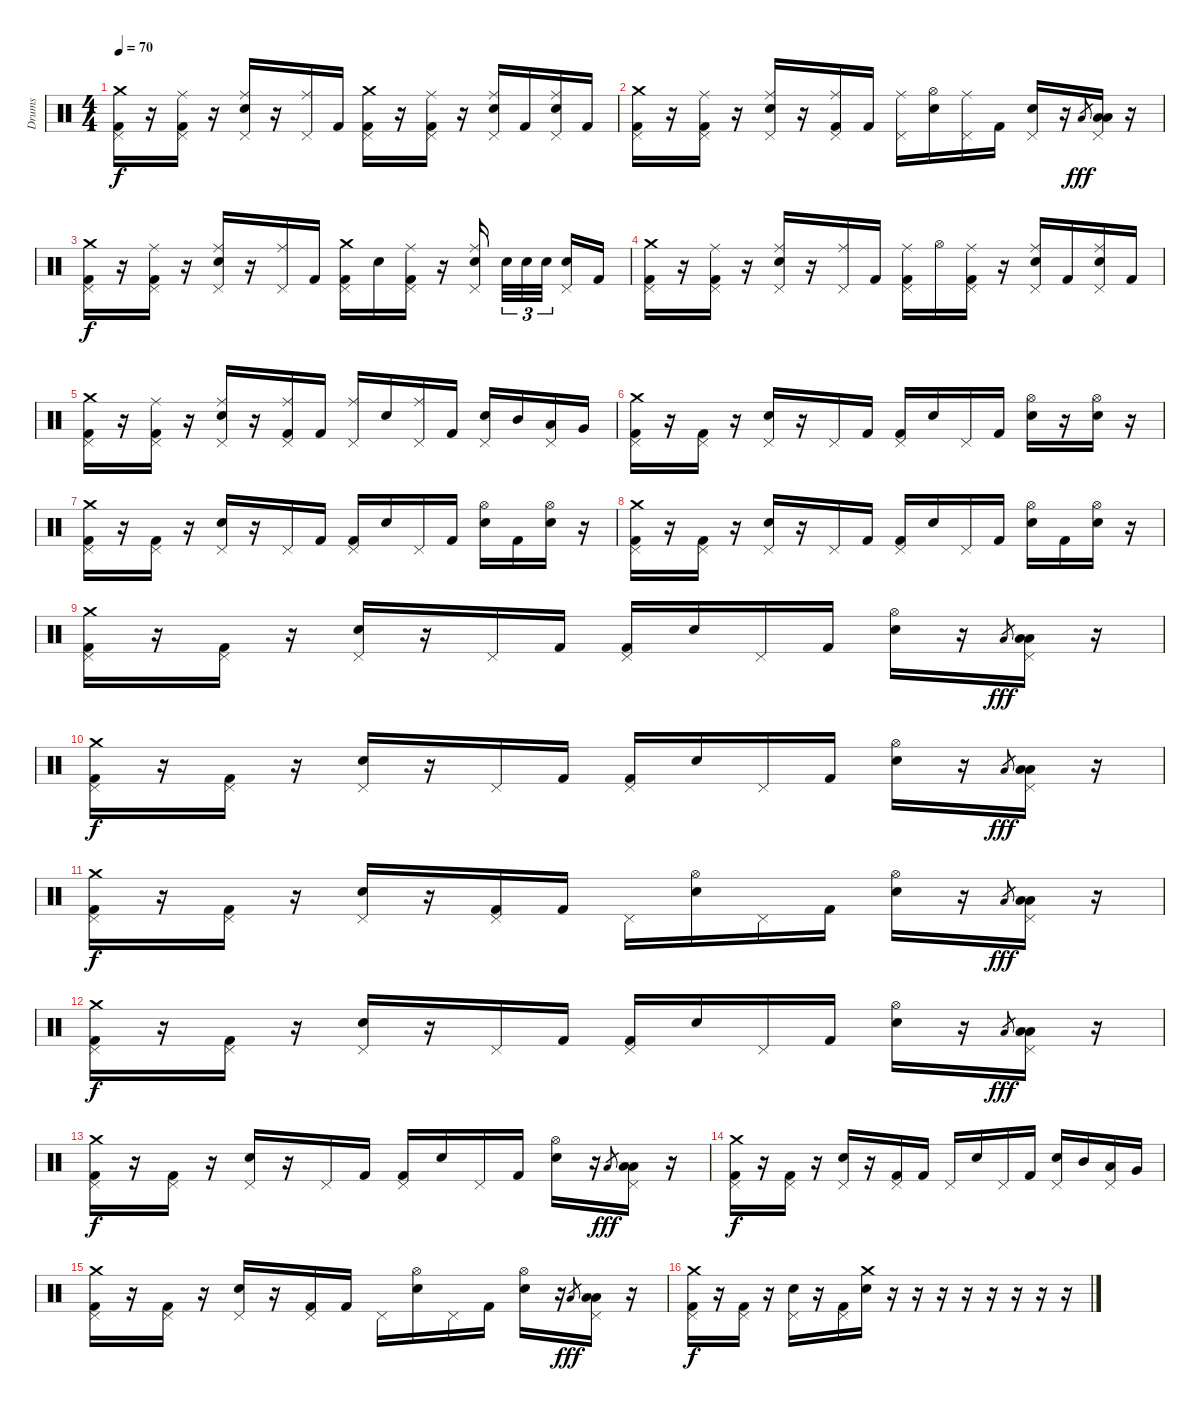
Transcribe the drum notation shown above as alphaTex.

\track ("Drums" "Drums") {instrument percussion}
\staff {score}
\articulation defaults
\ts (4 4)
\tempo 70
\clef neutral
\ks c
("Crash medium (hit)" "Pedal Hi-Hat (hit)" "Kick (hit) 2").16{dy f} r.16 ("Ride (middle)" "Pedal Hi-Hat (hit)" "Kick (hit) 2").16 r.16 ("Ride (middle)" "Pedal Hi-Hat (hit)" "Snare (hit) 2").16 r.16 ("Ride (middle)" "Pedal Hi-Hat (hit)").16 "Kick (hit) 2".16 ("Crash medium (hit)" "Pedal Hi-Hat (hit)" "Kick (hit) 2").16 r.16 ("Ride (middle)" "Pedal Hi-Hat (hit)" "Kick (hit) 2").16 r.16 ("Ride (middle)" "Pedal Hi-Hat (hit)" "Snare (hit) 2").16 "Kick (hit) 2".16 ("Ride (middle)" "Pedal Hi-Hat (hit)" "Snare (hit) 2").16 "Kick (hit) 2".16 |
("Crash medium (hit)" "Pedal Hi-Hat (hit)" "Kick (hit) 2").16 r.16 ("Ride (middle)" "Pedal Hi-Hat (hit)" "Kick (hit) 2").16 r.16 ("Ride (middle)" "Pedal Hi-Hat (hit)" "Snare (hit) 2").16 r.16 ("Ride (middle)" "Pedal Hi-Hat (hit)" "Kick (hit) 2").16 "Kick (hit) 2".16 ("Ride (middle)" "Pedal Hi-Hat (hit)").16 ("Hi-Hat (open)" "Snare (hit) 2").16 ("Ride (middle)" "Pedal Hi-Hat (hit)").16 "Kick (hit) 2".16 ("Pedal Hi-Hat (hit)" "Snare (hit) 2").16 r.16 "Low Tom (hit)".8{gr dy fff} ("Pedal Hi-Hat (hit)" "Low Tom (hit)" "Low Tom (hit)").16 r.16 |
("Crash medium (hit)" "Pedal Hi-Hat (hit)" "Kick (hit) 2").16{dy f} r.16 ("Ride (middle)" "Pedal Hi-Hat (hit)" "Kick (hit) 2").16 r.16 ("Ride (middle)" "Pedal Hi-Hat (hit)" "Snare (hit) 2").16 r.16 ("Ride (middle)" "Pedal Hi-Hat (hit)").16 "Kick (hit) 2".16 ("Crash medium (hit)" "Pedal Hi-Hat (hit)" "Kick (hit) 2").16 "Snare (hit) 2".16 ("Ride (middle)" "Pedal Hi-Hat (hit)" "Kick (hit) 2").16 r.16 ("Ride (middle)" "Pedal Hi-Hat (hit)" "Snare (hit) 2").16 "Snare (hit) 2".32{tu (3 2)} "Snare (hit) 2".32{tu (3 2)} "Snare (hit) 2".32{tu (3 2)} ("Pedal Hi-Hat (hit)" "Snare (hit) 2").16 "Kick (hit) 2".16 |
("Crash medium (hit)" "Pedal Hi-Hat (hit)" "Kick (hit) 2").16 r.16 ("Ride (middle)" "Pedal Hi-Hat (hit)" "Kick (hit) 2").16 r.16 ("Ride (middle)" "Pedal Hi-Hat (hit)" "Snare (hit) 2").16 r.16 ("Ride (middle)" "Pedal Hi-Hat (hit)").16 "Kick (hit) 2".16 ("Ride (middle)" "Pedal Hi-Hat (hit)" "Kick (hit) 2").16 "Hi-Hat (open)".16 ("Ride (middle)" "Pedal Hi-Hat (hit)" "Kick (hit) 2").16 r.16 ("Ride (middle)" "Pedal Hi-Hat (hit)" "Snare (hit) 2").16 "Kick (hit) 2".16 ("Ride (middle)" "Pedal Hi-Hat (hit)" "Snare (hit) 2").16 "Kick (hit) 2".16 |
("Crash medium (hit)" "Pedal Hi-Hat (hit)" "Kick (hit) 2").16 r.16 ("Ride (middle)" "Pedal Hi-Hat (hit)" "Kick (hit) 2").16 r.16 ("Ride (middle)" "Pedal Hi-Hat (hit)" "Snare (hit) 2").16 r.16 ("Ride (middle)" "Pedal Hi-Hat (hit)" "Kick (hit) 2").16 "Kick (hit) 2".16 ("Ride (middle)" "Pedal Hi-Hat (hit)").16 "Snare (hit) 2".16 ("Ride (middle)" "Pedal Hi-Hat (hit)").16 "Kick (hit) 2".16 ("Pedal Hi-Hat (hit)" "Snare (hit) 2").16 "Mid Tom (hit)".16 ("Pedal Hi-Hat (hit)" "Low Tom (hit)").16 "Very Low Tom (hit)".16 |
("Crash medium (hit)" "Pedal Hi-Hat (hit)" "Kick (hit) 2").16 r.16 ("Pedal Hi-Hat (hit)" "Kick (hit) 2").16 r.16 ("Pedal Hi-Hat (hit)" "Snare (hit) 2").16 r.16 "Pedal Hi-Hat (hit)".16 "Kick (hit) 2".16 ("Pedal Hi-Hat (hit)" "Kick (hit) 2").16 "Snare (hit) 2".16 "Pedal Hi-Hat (hit)".16 "Kick (hit) 2".16 ("Hi-Hat (open)" "Snare (hit) 2").16 r.16 ("Hi-Hat (open)" "Snare (hit) 2").16 r.16 |
("Crash medium (hit)" "Pedal Hi-Hat (hit)" "Kick (hit) 2").16 r.16 ("Pedal Hi-Hat (hit)" "Kick (hit) 2").16 r.16 ("Pedal Hi-Hat (hit)" "Snare (hit) 2").16 r.16 "Pedal Hi-Hat (hit)".16 "Kick (hit) 2".16 ("Pedal Hi-Hat (hit)" "Kick (hit) 2").16 "Snare (hit) 2".16 "Pedal Hi-Hat (hit)".16 "Kick (hit) 2".16 ("Hi-Hat (open)" "Snare (hit) 2").16 "Kick (hit) 2".16 ("Hi-Hat (open)" "Snare (hit) 2").16 r.16 |
("Crash medium (hit)" "Pedal Hi-Hat (hit)" "Kick (hit) 2").16 r.16 ("Pedal Hi-Hat (hit)" "Kick (hit) 2").16 r.16 ("Pedal Hi-Hat (hit)" "Snare (hit) 2").16 r.16 "Pedal Hi-Hat (hit)".16 "Kick (hit) 2".16 ("Pedal Hi-Hat (hit)" "Kick (hit) 2").16 "Snare (hit) 2".16 "Pedal Hi-Hat (hit)".16 "Kick (hit) 2".16 ("Hi-Hat (open)" "Snare (hit) 2").16 "Kick (hit) 2".16 ("Hi-Hat (open)" "Snare (hit) 2").16 r.16 |
("Crash medium (hit)" "Pedal Hi-Hat (hit)" "Kick (hit) 2").16 r.16 ("Pedal Hi-Hat (hit)" "Kick (hit) 2").16 r.16 ("Pedal Hi-Hat (hit)" "Snare (hit) 2").16 r.16 "Pedal Hi-Hat (hit)".16 "Kick (hit) 2".16 ("Pedal Hi-Hat (hit)" "Kick (hit) 2").16 "Snare (hit) 2".16 "Pedal Hi-Hat (hit)".16 "Kick (hit) 2".16 ("Hi-Hat (open)" "Snare (hit) 2").16 r.16 "Low Tom (hit)".8{gr dy fff} ("Pedal Hi-Hat (hit)" "Low Tom (hit)" "Low Tom (hit)").16 r.16 |
("Crash medium (hit)" "Pedal Hi-Hat (hit)" "Kick (hit) 2").16{dy f} r.16 ("Pedal Hi-Hat (hit)" "Kick (hit) 2").16 r.16 ("Pedal Hi-Hat (hit)" "Snare (hit) 2").16 r.16 "Pedal Hi-Hat (hit)".16 "Kick (hit) 2".16 ("Pedal Hi-Hat (hit)" "Kick (hit) 2").16 "Snare (hit) 2".16 "Pedal Hi-Hat (hit)".16 "Kick (hit) 2".16 ("Hi-Hat (open)" "Snare (hit) 2").16 r.16 "Low Tom (hit)".8{gr dy fff} ("Pedal Hi-Hat (hit)" "Low Tom (hit)" "Low Tom (hit)").16 r.16 |
("Crash medium (hit)" "Pedal Hi-Hat (hit)" "Kick (hit) 2").16{dy f} r.16 ("Pedal Hi-Hat (hit)" "Kick (hit) 2").16 r.16 ("Pedal Hi-Hat (hit)" "Snare (hit) 2").16 r.16 ("Pedal Hi-Hat (hit)" "Kick (hit) 2").16 "Kick (hit) 2".16 "Pedal Hi-Hat (hit)".16 ("Hi-Hat (open)" "Snare (hit) 2").16 "Pedal Hi-Hat (hit)".16 "Kick (hit) 2".16 ("Hi-Hat (open)" "Snare (hit) 2").16 r.16 "Low Tom (hit)".8{gr dy fff} ("Pedal Hi-Hat (hit)" "Low Tom (hit)" "Low Tom (hit)").16 r.16 |
("Crash medium (hit)" "Pedal Hi-Hat (hit)" "Kick (hit) 2").16{dy f} r.16 ("Pedal Hi-Hat (hit)" "Kick (hit) 2").16 r.16 ("Pedal Hi-Hat (hit)" "Snare (hit) 2").16 r.16 "Pedal Hi-Hat (hit)".16 "Kick (hit) 2".16 ("Pedal Hi-Hat (hit)" "Kick (hit) 2").16 "Snare (hit) 2".16 "Pedal Hi-Hat (hit)".16 "Kick (hit) 2".16 ("Hi-Hat (open)" "Snare (hit) 2").16 r.16 "Low Tom (hit)".8{gr dy fff} ("Pedal Hi-Hat (hit)" "Low Tom (hit)" "Low Tom (hit)").16 r.16 |
("Crash medium (hit)" "Pedal Hi-Hat (hit)" "Kick (hit) 2").16{dy f} r.16 ("Pedal Hi-Hat (hit)" "Kick (hit) 2").16 r.16 ("Pedal Hi-Hat (hit)" "Snare (hit) 2").16 r.16 "Pedal Hi-Hat (hit)".16 "Kick (hit) 2".16 ("Pedal Hi-Hat (hit)" "Kick (hit) 2").16 "Snare (hit) 2".16 "Pedal Hi-Hat (hit)".16 "Kick (hit) 2".16 ("Hi-Hat (open)" "Snare (hit) 2").16 r.16 "Low Tom (hit)".8{gr dy fff} ("Pedal Hi-Hat (hit)" "Low Tom (hit)" "Low Tom (hit)").16 r.16 |
("Crash medium (hit)" "Pedal Hi-Hat (hit)" "Kick (hit) 2").16{dy f} r.16 ("Pedal Hi-Hat (hit)" "Kick (hit) 2").16 r.16 ("Pedal Hi-Hat (hit)" "Snare (hit) 2").16 r.16 ("Pedal Hi-Hat (hit)" "Kick (hit) 2").16 "Kick (hit) 2".16 "Pedal Hi-Hat (hit)".16 "Snare (hit) 2".16 "Pedal Hi-Hat (hit)".16 "Kick (hit) 2".16 ("Pedal Hi-Hat (hit)" "Snare (hit) 2").16 "Mid Tom (hit)".16 ("Pedal Hi-Hat (hit)" "Low Tom (hit)").16 "Very Low Tom (hit)".16 |
("Crash medium (hit)" "Pedal Hi-Hat (hit)" "Kick (hit) 2").16 r.16 ("Pedal Hi-Hat (hit)" "Kick (hit) 2").16 r.16 ("Pedal Hi-Hat (hit)" "Snare (hit) 2").16 r.16 ("Pedal Hi-Hat (hit)" "Kick (hit) 2").16 "Kick (hit) 2".16 "Pedal Hi-Hat (hit)".16 ("Hi-Hat (open)" "Snare (hit) 2").16 "Pedal Hi-Hat (hit)".16 "Kick (hit) 2".16 ("Hi-Hat (open)" "Snare (hit) 2").16 r.16 "Low Tom (hit)".8{gr dy fff} ("Pedal Hi-Hat (hit)" "Low Tom (hit)" "Low Tom (hit)").16 r.16 |
("Crash medium (hit)" "Pedal Hi-Hat (hit)" "Kick (hit) 2").16{dy f} r.16 ("Pedal Hi-Hat (hit)" "Kick (hit) 2").16 r.16 ("Pedal Hi-Hat (hit)" "Snare (hit) 2").16 r.16 ("Pedal Hi-Hat (hit)" "Kick (hit) 2").16 ("Crash medium (hit)" "Snare (hit) 2").16 r.16 r.16 r.16 r.16 r.16 r.16 r.16 r.16
